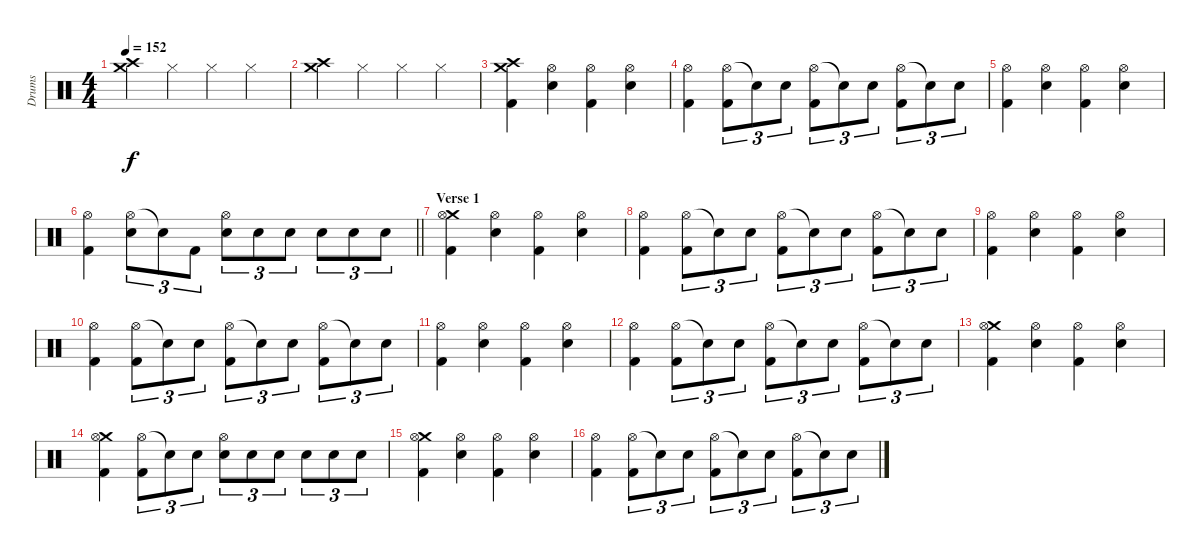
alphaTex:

\track ("Drums" "Drums") {instrument percussion}
\staff {score}
\articulation defaults
\ts (4 4)
\tempo 152
\clef neutral
\ks c
("Crash high (hit)" "Crash medium (hit)").4{dy f} "Hi-Hat (closed)".4 "Hi-Hat (closed)".4 "Hi-Hat (closed)".4 |
("Crash high (hit)" "Crash medium (hit)").4 "Hi-Hat (closed)".4 "Hi-Hat (closed)".4 "Hi-Hat (closed)".4 |
("Crash high (hit)" "Crash medium (hit)" "Kick (hit) 2").4 ("Hi-Hat (open)" "Snare (hit) 2").4 ("Hi-Hat (open)" "Kick (hit) 2").4 ("Hi-Hat (open)" "Snare (hit) 2").4 |
("Hi-Hat (open)" "Kick (hit) 2").4 ("Hi-Hat (open)" "Kick (hit) 2").8{tu (3 2)} "Snare (hit)"{t}.8{tu (3 2)} "Snare (hit) 2".8{tu (3 2)} ("Hi-Hat (open)" "Kick (hit) 2").8{tu (3 2)} "Snare (hit)"{t}.8{tu (3 2)} "Snare (hit) 2".8{tu (3 2)} ("Hi-Hat (open)" "Kick (hit) 2").8{tu (3 2)} "Snare (hit) 2"{t}.8{tu (3 2)} "Snare (hit) 2".8{tu (3 2)} |
("Hi-Hat (open)" "Kick (hit) 2").4 ("Hi-Hat (open)" "Snare (hit) 2").4 ("Hi-Hat (open)" "Kick (hit) 2").4 ("Hi-Hat (open)" "Snare (hit) 2").4 |
\barLineRight lightlight
("Hi-Hat (open)" "Kick (hit) 2").4 ("Hi-Hat (open)" "Snare (hit) 2").8{tu (3 2)} "Snare (hit)"{t}.8{tu (3 2)} "Kick (hit) 2".8{tu (3 2)} ("Hi-Hat (open)" "Snare (hit) 2").8{tu (3 2)} "Snare (hit) 2".8{tu (3 2)} "Snare (hit) 2".8{tu (3 2)} "Snare (hit) 2".8{tu (3 2)} "Snare (hit) 2".8{tu (3 2)} "Snare (hit) 2".8{tu (3 2)} |
\section ("" "Verse 1")
("Crash medium (hit)" "Hi-Hat (open)" "Kick (hit) 2").4 ("Hi-Hat (open)" "Snare (hit) 2").4 ("Hi-Hat (open)" "Kick (hit) 2").4 ("Hi-Hat (open)" "Snare (hit) 2").4 |
("Hi-Hat (open)" "Kick (hit) 2").4 ("Hi-Hat (open)" "Kick (hit) 2").8{tu (3 2)} "Snare (hit)"{t}.8{tu (3 2)} "Snare (hit) 2".8{tu (3 2)} ("Hi-Hat (open)" "Kick (hit) 2").8{tu (3 2)} "Snare (hit)"{t}.8{tu (3 2)} "Snare (hit) 2".8{tu (3 2)} ("Hi-Hat (open)" "Kick (hit) 2").8{tu (3 2)} "Snare (hit) 2"{t}.8{tu (3 2)} "Snare (hit) 2".8{tu (3 2)} |
("Hi-Hat (open)" "Kick (hit) 2").4 ("Hi-Hat (open)" "Snare (hit) 2").4 ("Hi-Hat (open)" "Kick (hit) 2").4 ("Hi-Hat (open)" "Snare (hit) 2").4 |
("Hi-Hat (open)" "Kick (hit) 2").4 ("Hi-Hat (open)" "Kick (hit) 2").8{tu (3 2)} "Snare (hit)"{t}.8{tu (3 2)} "Snare (hit) 2".8{tu (3 2)} ("Hi-Hat (open)" "Kick (hit) 2").8{tu (3 2)} "Snare (hit)"{t}.8{tu (3 2)} "Snare (hit) 2".8{tu (3 2)} ("Hi-Hat (open)" "Kick (hit) 2").8{tu (3 2)} "Snare (hit) 2"{t}.8{tu (3 2)} "Snare (hit) 2".8{tu (3 2)} |
("Hi-Hat (open)" "Kick (hit) 2").4 ("Hi-Hat (open)" "Snare (hit) 2").4 ("Hi-Hat (open)" "Kick (hit) 2").4 ("Hi-Hat (open)" "Snare (hit) 2").4 |
("Hi-Hat (open)" "Kick (hit) 2").4 ("Hi-Hat (open)" "Kick (hit) 2").8{tu (3 2)} "Snare (hit)"{t}.8{tu (3 2)} "Snare (hit) 2".8{tu (3 2)} ("Hi-Hat (open)" "Kick (hit) 2").8{tu (3 2)} "Snare (hit)"{t}.8{tu (3 2)} "Snare (hit) 2".8{tu (3 2)} ("Hi-Hat (open)" "Kick (hit) 2").8{tu (3 2)} "Snare (hit) 2"{t}.8{tu (3 2)} "Snare (hit) 2".8{tu (3 2)} |
("Crash medium (hit)" "Hi-Hat (open)" "Kick (hit) 2").4 ("Hi-Hat (open)" "Snare (hit) 2").4 ("Hi-Hat (open)" "Kick (hit) 2").4 ("Hi-Hat (open)" "Snare (hit) 2").4 |
("Crash medium (hit)" "Hi-Hat (open)" "Kick (hit) 2").4 ("Hi-Hat (open)" "Kick (hit) 2").8{tu (3 2)} "Snare (hit)"{t}.8{tu (3 2)} "Snare (hit) 2".8{tu (3 2)} ("Hi-Hat (open)" "Snare (hit) 2").8{tu (3 2)} "Snare (hit) 2".8{tu (3 2)} "Snare (hit) 2".8{tu (3 2)} "Snare (hit) 2".8{tu (3 2)} "Snare (hit) 2".8{tu (3 2)} "Snare (hit) 2".8{tu (3 2)} |
("Crash medium (hit)" "Hi-Hat (open)" "Kick (hit) 2").4 ("Hi-Hat (open)" "Snare (hit) 2").4 ("Hi-Hat (open)" "Kick (hit) 2").4 ("Hi-Hat (open)" "Snare (hit) 2").4 |
("Hi-Hat (open)" "Kick (hit) 2").4 ("Hi-Hat (open)" "Kick (hit) 2").8{tu (3 2)} "Snare (hit)"{t}.8{tu (3 2)} "Snare (hit) 2".8{tu (3 2)} ("Hi-Hat (open)" "Kick (hit) 2").8{tu (3 2)} "Snare (hit)"{t}.8{tu (3 2)} "Snare (hit) 2".8{tu (3 2)} ("Hi-Hat (open)" "Kick (hit) 2").8{tu (3 2)} "Snare (hit) 2"{t}.8{tu (3 2)} "Snare (hit) 2".8{tu (3 2)}
